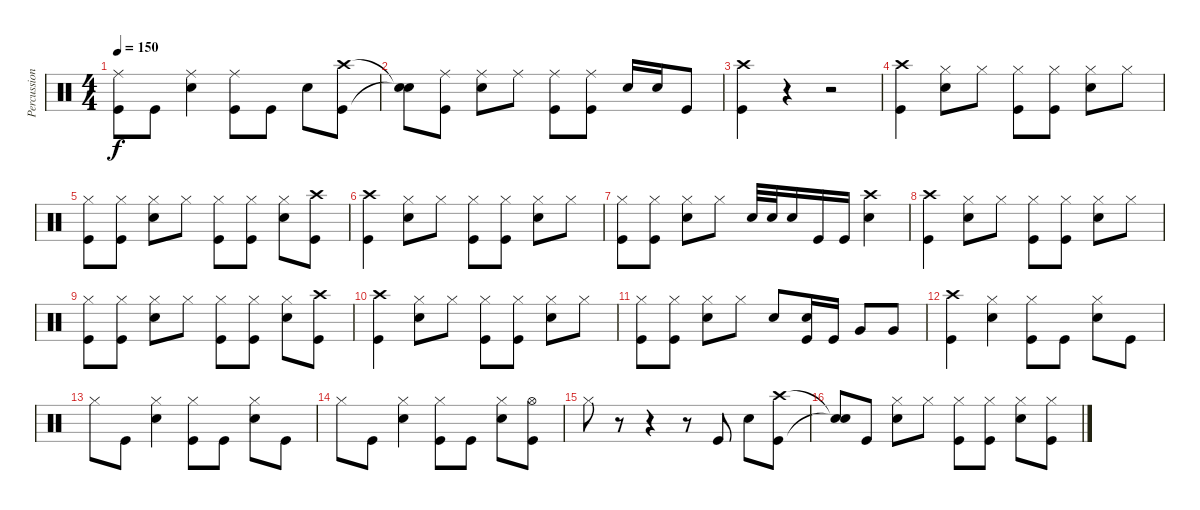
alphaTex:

\track ("Percussion" "Percussion") {instrument percussion}
\staff {score}
\articulation defaults
\ts (4 4)
\tempo 150
\clef neutral
\ks c
("Ride (middle)" "Kick (hit)").8{dy f} "Kick (hit)".8 ("Ride (middle)" "Electric Snare (hit)").4 ("Ride (middle)" "Kick (hit)").8 "Kick (hit)".8 "Electric Snare (hit)".8 ("Crash high (hit)" "Kick (hit)").8 |
("Snare (hit)"{t} "Snare (hit)"{t}).8 ("Ride (middle)" "Kick (hit)").8 ("Ride (middle)" "Electric Snare (hit)").8 "Ride (middle)".8 ("Ride (middle)" "Kick (hit)").8 ("Ride (middle)" "Kick (hit)").8 "Electric Snare (hit)".16 "Electric Snare (hit)".16 "Kick (hit)".8 |
("Crash high (hit)" "Kick (hit)").4 r.4 r.2 |
("Crash high (hit)" "Kick (hit)").4 ("Hi-Hat (closed)" "Electric Snare (hit)").8 "Hi-Hat (closed)".8 ("Hi-Hat (closed)" "Kick (hit)").8 ("Hi-Hat (closed)" "Kick (hit)").8 ("Hi-Hat (closed)" "Electric Snare (hit)").8 "Hi-Hat (closed)".8 |
("Hi-Hat (closed)" "Kick (hit)").8 ("Hi-Hat (closed)" "Kick (hit)").8 ("Hi-Hat (closed)" "Electric Snare (hit)").8 "Hi-Hat (closed)".8 ("Hi-Hat (closed)" "Kick (hit)").8 ("Hi-Hat (closed)" "Kick (hit)").8 ("Hi-Hat (closed)" "Electric Snare (hit)").8 ("Crash high (hit)" "Kick (hit)").8 |
("Crash high (hit)" "Kick (hit)").4 ("Hi-Hat (closed)" "Electric Snare (hit)").8 "Hi-Hat (closed)".8 ("Hi-Hat (closed)" "Kick (hit)").8 ("Hi-Hat (closed)" "Kick (hit)").8 ("Hi-Hat (closed)" "Electric Snare (hit)").8 "Hi-Hat (closed)".8 |
("Hi-Hat (closed)" "Kick (hit)").8 ("Hi-Hat (closed)" "Kick (hit)").8 ("Hi-Hat (closed)" "Electric Snare (hit)").8 "Hi-Hat (closed)".8 "Electric Snare (hit)".32 "Electric Snare (hit)".32 "Electric Snare (hit)".16 "Kick (hit)".16 "Kick (hit)".16 ("Crash high (hit)" "Electric Snare (hit)").4 |
("Crash high (hit)" "Kick (hit)").4 ("Hi-Hat (closed)" "Electric Snare (hit)").8 "Hi-Hat (closed)".8 ("Hi-Hat (closed)" "Kick (hit)").8 ("Hi-Hat (closed)" "Kick (hit)").8 ("Hi-Hat (closed)" "Electric Snare (hit)").8 "Hi-Hat (closed)".8 |
("Hi-Hat (closed)" "Kick (hit)").8 ("Hi-Hat (closed)" "Kick (hit)").8 ("Hi-Hat (closed)" "Electric Snare (hit)").8 "Hi-Hat (closed)".8 ("Hi-Hat (closed)" "Kick (hit)").8 ("Hi-Hat (closed)" "Kick (hit)").8 ("Hi-Hat (closed)" "Electric Snare (hit)").8 ("Crash high (hit)" "Kick (hit)").8 |
("Crash high (hit)" "Kick (hit)").4 ("Hi-Hat (closed)" "Electric Snare (hit)").8 "Hi-Hat (closed)".8 ("Hi-Hat (closed)" "Kick (hit)").8 ("Hi-Hat (closed)" "Kick (hit)").8 ("Hi-Hat (closed)" "Electric Snare (hit)").8 "Hi-Hat (closed)".8 |
("Hi-Hat (closed)" "Kick (hit)").8 ("Hi-Hat (closed)" "Kick (hit)").8 ("Hi-Hat (closed)" "Electric Snare (hit)").8 "Hi-Hat (closed)".8 "Electric Snare (hit)".8 ("Electric Snare (hit)" "Kick (hit)").16 "Kick (hit)".16 "Very Low Tom (hit)".8 "Very Low Tom (hit)".8 |
("Crash high (hit)" "Kick (hit)").4 ("Hi-Hat (closed)" "Electric Snare (hit)").4 ("Hi-Hat (closed)" "Kick (hit)").8 "Kick (hit)".8 ("Hi-Hat (closed)" "Electric Snare (hit)").8 "Kick (hit)".8 |
"Hi-Hat (closed)".8 "Kick (hit)".8 ("Hi-Hat (closed)" "Electric Snare (hit)").4 ("Hi-Hat (closed)" "Kick (hit)").8 "Kick (hit)".8 ("Hi-Hat (closed)" "Electric Snare (hit)").8 "Kick (hit)".8 |
"Hi-Hat (closed)".8 "Kick (hit)".8 ("Hi-Hat (closed)" "Electric Snare (hit)").4 ("Hi-Hat (closed)" "Kick (hit)").8 "Kick (hit)".8 ("Hi-Hat (closed)" "Electric Snare (hit)").8 ("Hi-Hat (open)" "Kick (hit)").8 |
"Hi-Hat (closed)".8 r.8 r.4 r.8 "Kick (hit)".8 "Electric Snare (hit)".8 ("Crash high (hit)" "Kick (hit)").8 |
("Snare (hit)"{t} "Snare (hit)"{t}).8 "Kick (hit)".8 ("Hi-Hat (closed)" "Electric Snare (hit)").8 "Hi-Hat (closed)".8 ("Hi-Hat (closed)" "Kick (hit)").8 ("Hi-Hat (closed)" "Kick (hit)").8 ("Hi-Hat (closed)" "Electric Snare (hit)").8 ("Hi-Hat (closed)" "Kick (hit)").8
